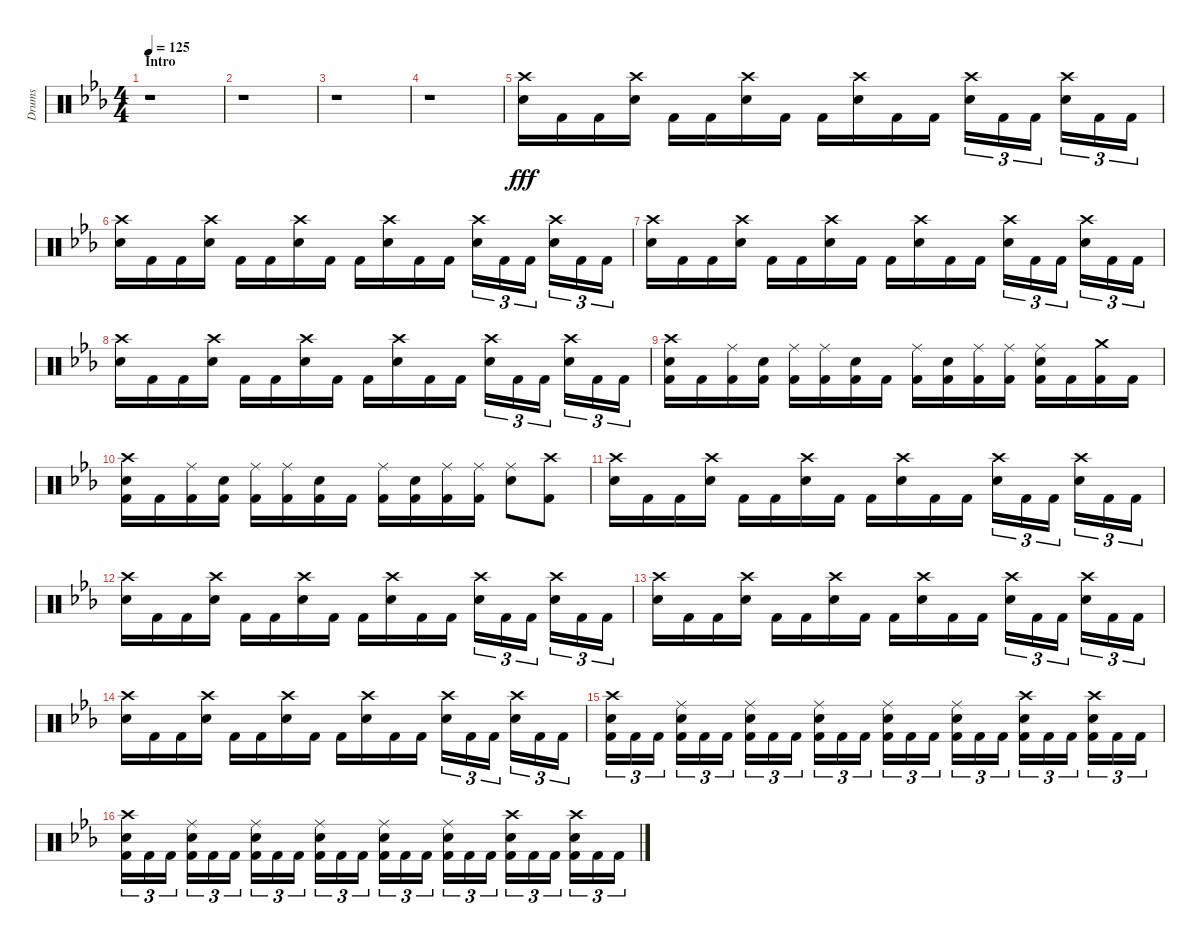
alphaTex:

\track ("Drums" "Drums") {instrument percussion}
\staff {score}
\articulation defaults
\ts (4 4)
\section ("" "Intro")
\tempo 125
\clef neutral
\ks cminor
r.1{dy fff} |
r.1 |
r.1 |
r.1 |
("Crash high (hit)" "Snare (hit) 2").16 "Kick (hit) 2".16 "Kick (hit) 2".16 ("Crash high (hit)" "Snare (hit) 2").16 "Kick (hit) 2".16 "Kick (hit) 2".16 ("Crash high (hit)" "Snare (hit) 2").16 "Kick (hit) 2".16 "Kick (hit) 2".16 ("Crash high (hit)" "Snare (hit) 2").16 "Kick (hit) 2".16 "Kick (hit) 2".16 ("Crash high (hit)" "Snare (hit) 2").16{tu (3 2)} "Kick (hit) 2".16{tu (3 2)} "Kick (hit) 2".16{tu (3 2)} ("Crash high (hit)" "Snare (hit) 2").16{tu (3 2)} "Kick (hit) 2".16{tu (3 2)} "Kick (hit) 2".16{tu (3 2)} |
("Crash high (hit)" "Snare (hit) 2").16 "Kick (hit) 2".16 "Kick (hit) 2".16 ("Crash high (hit)" "Snare (hit) 2").16 "Kick (hit) 2".16 "Kick (hit) 2".16 ("Crash high (hit)" "Snare (hit) 2").16 "Kick (hit) 2".16 "Kick (hit) 2".16 ("Crash high (hit)" "Snare (hit) 2").16 "Kick (hit) 2".16 "Kick (hit) 2".16 ("Crash high (hit)" "Snare (hit) 2").16{tu (3 2)} "Kick (hit) 2".16{tu (3 2)} "Kick (hit) 2".16{tu (3 2)} ("Crash high (hit)" "Snare (hit) 2").16{tu (3 2)} "Kick (hit) 2".16{tu (3 2)} "Kick (hit) 2".16{tu (3 2)} |
("Crash high (hit)" "Snare (hit) 2").16 "Kick (hit) 2".16 "Kick (hit) 2".16 ("Crash high (hit)" "Snare (hit) 2").16 "Kick (hit) 2".16 "Kick (hit) 2".16 ("Crash high (hit)" "Snare (hit) 2").16 "Kick (hit) 2".16 "Kick (hit) 2".16 ("Crash high (hit)" "Snare (hit) 2").16 "Kick (hit) 2".16 "Kick (hit) 2".16 ("Crash high (hit)" "Snare (hit) 2").16{tu (3 2)} "Kick (hit) 2".16{tu (3 2)} "Kick (hit) 2".16{tu (3 2)} ("Crash high (hit)" "Snare (hit) 2").16{tu (3 2)} "Kick (hit) 2".16{tu (3 2)} "Kick (hit) 2".16{tu (3 2)} |
("Crash high (hit)" "Snare (hit) 2").16 "Kick (hit) 2".16 "Kick (hit) 2".16 ("Crash high (hit)" "Snare (hit) 2").16 "Kick (hit) 2".16 "Kick (hit) 2".16 ("Crash high (hit)" "Snare (hit) 2").16 "Kick (hit) 2".16 "Kick (hit) 2".16 ("Crash high (hit)" "Snare (hit) 2").16 "Kick (hit) 2".16 "Kick (hit) 2".16 ("Crash high (hit)" "Snare (hit) 2").16{tu (3 2)} "Kick (hit) 2".16{tu (3 2)} "Kick (hit) 2".16{tu (3 2)} ("Crash high (hit)" "Snare (hit) 2").16{tu (3 2)} "Kick (hit) 2".16{tu (3 2)} "Kick (hit) 2".16{tu (3 2)} |
("Crash high (hit)" "Snare (hit) 2" "Kick (hit) 2").16 "Kick (hit) 2".16 ("Ride (middle)" "Kick (hit) 2").16 ("Snare (hit) 2" "Kick (hit) 2").16 ("Ride (middle)" "Kick (hit) 2").16 ("Ride (middle)" "Kick (hit) 2").16 ("Snare (hit) 2" "Kick (hit) 2").16 "Kick (hit) 2".16 ("Ride (middle)" "Kick (hit) 2").16 ("Snare (hit) 2" "Kick (hit) 2").16 ("Ride (middle)" "Kick (hit) 2").16 ("Ride (middle)" "Kick (hit) 2").16 ("Ride (middle)" "Snare (hit) 2" "Kick (hit) 2").16 "Kick (hit) 2".16 ("Crash medium (hit)" "Kick (hit) 2").16 "Kick (hit) 2".16 |
("Crash high (hit)" "Snare (hit) 2" "Kick (hit) 2").16 "Kick (hit) 2".16 ("Ride (middle)" "Kick (hit) 2").16 ("Snare (hit) 2" "Kick (hit) 2").16 ("Ride (middle)" "Kick (hit) 2").16 ("Ride (middle)" "Kick (hit) 2").16 ("Snare (hit) 2" "Kick (hit) 2").16 "Kick (hit) 2".16 ("Ride (middle)" "Kick (hit) 2").16 ("Snare (hit) 2" "Kick (hit) 2").16 ("Ride (middle)" "Kick (hit) 2").16 ("Ride (middle)" "Kick (hit) 2").16 ("Ride (middle)" "Snare (hit) 2").8 ("Crash high (hit)" "Kick (hit) 2").8 |
("Crash high (hit)" "Snare (hit) 2").16 "Kick (hit) 2".16 "Kick (hit) 2".16 ("Crash high (hit)" "Snare (hit) 2").16 "Kick (hit) 2".16 "Kick (hit) 2".16 ("Crash high (hit)" "Snare (hit) 2").16 "Kick (hit) 2".16 "Kick (hit) 2".16 ("Crash high (hit)" "Snare (hit) 2").16 "Kick (hit) 2".16 "Kick (hit) 2".16 ("Crash high (hit)" "Snare (hit) 2").16{tu (3 2)} "Kick (hit) 2".16{tu (3 2)} "Kick (hit) 2".16{tu (3 2)} ("Crash high (hit)" "Snare (hit) 2").16{tu (3 2)} "Kick (hit) 2".16{tu (3 2)} "Kick (hit) 2".16{tu (3 2)} |
("Crash high (hit)" "Snare (hit) 2").16 "Kick (hit) 2".16 "Kick (hit) 2".16 ("Crash high (hit)" "Snare (hit) 2").16 "Kick (hit) 2".16 "Kick (hit) 2".16 ("Crash high (hit)" "Snare (hit) 2").16 "Kick (hit) 2".16 "Kick (hit) 2".16 ("Crash high (hit)" "Snare (hit) 2").16 "Kick (hit) 2".16 "Kick (hit) 2".16 ("Crash high (hit)" "Snare (hit) 2").16{tu (3 2)} "Kick (hit) 2".16{tu (3 2)} "Kick (hit) 2".16{tu (3 2)} ("Crash high (hit)" "Snare (hit) 2").16{tu (3 2)} "Kick (hit) 2".16{tu (3 2)} "Kick (hit) 2".16{tu (3 2)} |
("Crash high (hit)" "Snare (hit) 2").16 "Kick (hit) 2".16 "Kick (hit) 2".16 ("Crash high (hit)" "Snare (hit) 2").16 "Kick (hit) 2".16 "Kick (hit) 2".16 ("Crash high (hit)" "Snare (hit) 2").16 "Kick (hit) 2".16 "Kick (hit) 2".16 ("Crash high (hit)" "Snare (hit) 2").16 "Kick (hit) 2".16 "Kick (hit) 2".16 ("Crash high (hit)" "Snare (hit) 2").16{tu (3 2)} "Kick (hit) 2".16{tu (3 2)} "Kick (hit) 2".16{tu (3 2)} ("Crash high (hit)" "Snare (hit) 2").16{tu (3 2)} "Kick (hit) 2".16{tu (3 2)} "Kick (hit) 2".16{tu (3 2)} |
("Crash high (hit)" "Snare (hit) 2").16 "Kick (hit) 2".16 "Kick (hit) 2".16 ("Crash high (hit)" "Snare (hit) 2").16 "Kick (hit) 2".16 "Kick (hit) 2".16 ("Crash high (hit)" "Snare (hit) 2").16 "Kick (hit) 2".16 "Kick (hit) 2".16 ("Crash high (hit)" "Snare (hit) 2").16 "Kick (hit) 2".16 "Kick (hit) 2".16 ("Crash high (hit)" "Snare (hit) 2").16{tu (3 2)} "Kick (hit) 2".16{tu (3 2)} "Kick (hit) 2".16{tu (3 2)} ("Crash high (hit)" "Snare (hit) 2").16{tu (3 2)} "Kick (hit) 2".16{tu (3 2)} "Kick (hit) 2".16{tu (3 2)} |
("Crash high (hit)" "Snare (hit) 2" "Kick (hit) 2").16{tu (3 2)} "Kick (hit) 2".16{tu (3 2)} "Kick (hit) 2".16{tu (3 2)} ("Ride (middle)" "Snare (hit) 2" "Kick (hit) 2").16{tu (3 2)} "Kick (hit) 2".16{tu (3 2)} "Kick (hit) 2".16{tu (3 2)} ("Ride (middle)" "Snare (hit) 2" "Kick (hit) 2").16{tu (3 2)} "Kick (hit) 2".16{tu (3 2)} "Kick (hit) 2".16{tu (3 2)} ("Ride (middle)" "Snare (hit) 2" "Kick (hit) 2").16{tu (3 2)} "Kick (hit) 2".16{tu (3 2)} "Kick (hit) 2".16{tu (3 2)} ("Ride (middle)" "Snare (hit) 2" "Kick (hit) 2").16{tu (3 2)} "Kick (hit) 2".16{tu (3 2)} "Kick (hit) 2".16{tu (3 2)} ("Ride (middle)" "Snare (hit) 2" "Kick (hit) 2").16{tu (3 2)} "Kick (hit) 2".16{tu (3 2)} "Kick (hit) 2".16{tu (3 2)} ("Crash high (hit)" "Snare (hit) 2" "Kick (hit) 2").16{tu (3 2)} "Kick (hit) 2".16{tu (3 2)} "Kick (hit) 2".16{tu (3 2)} ("Crash high (hit)" "Snare (hit) 2" "Kick (hit) 2").16{tu (3 2)} "Kick (hit) 2".16{tu (3 2)} "Kick (hit) 2".16{tu (3 2)} |
("Crash high (hit)" "Snare (hit) 2" "Kick (hit) 2").16{tu (3 2)} "Kick (hit) 2".16{tu (3 2)} "Kick (hit) 2".16{tu (3 2)} ("Ride (middle)" "Snare (hit) 2" "Kick (hit) 2").16{tu (3 2)} "Kick (hit) 2".16{tu (3 2)} "Kick (hit) 2".16{tu (3 2)} ("Ride (middle)" "Snare (hit) 2" "Kick (hit) 2").16{tu (3 2)} "Kick (hit) 2".16{tu (3 2)} "Kick (hit) 2".16{tu (3 2)} ("Ride (middle)" "Snare (hit) 2" "Kick (hit) 2").16{tu (3 2)} "Kick (hit) 2".16{tu (3 2)} "Kick (hit) 2".16{tu (3 2)} ("Ride (middle)" "Snare (hit) 2" "Kick (hit) 2").16{tu (3 2)} "Kick (hit) 2".16{tu (3 2)} "Kick (hit) 2".16{tu (3 2)} ("Ride (middle)" "Snare (hit) 2" "Kick (hit) 2").16{tu (3 2)} "Kick (hit) 2".16{tu (3 2)} "Kick (hit) 2".16{tu (3 2)} ("Crash high (hit)" "Snare (hit) 2" "Kick (hit) 2").16{tu (3 2)} "Kick (hit) 2".16{tu (3 2)} "Kick (hit) 2".16{tu (3 2)} ("Crash high (hit)" "Snare (hit) 2" "Kick (hit) 2").16{tu (3 2)} "Kick (hit) 2".16{tu (3 2)} "Kick (hit) 2".16{tu (3 2)}
